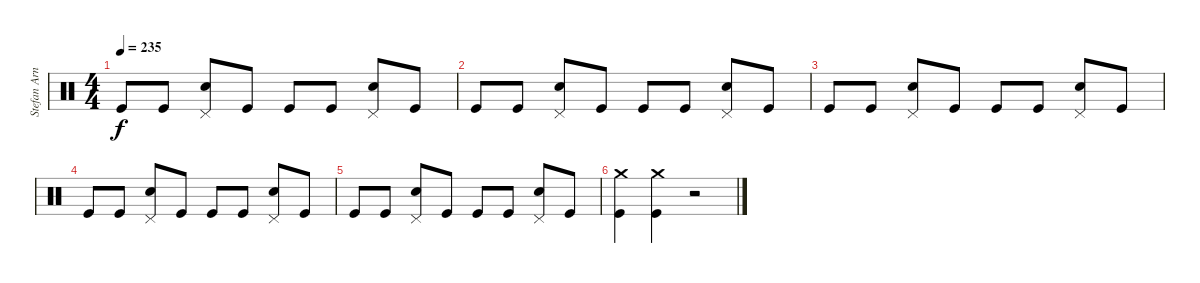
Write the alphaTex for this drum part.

\track ("Stefan Arnold" "Stefan Arn") {instrument percussion}
\staff {score}
\articulation defaults
\ts (4 4)
\tempo 235
\clef neutral
\ks c "Kick (hit)".8{dy f} "Kick (hit)".8
("Electric Snare (hit)" "Pedal Hi-Hat (hit)").8 "Kick (hit)".8 "Kick (hit)".8 "Kick (hit)".8 ("Electric Snare (hit)" "Pedal Hi-Hat (hit)").8 "Kick (hit)".8 |
"Kick (hit)".8 "Kick (hit)".8 ("Electric Snare (hit)" "Pedal Hi-Hat (hit)").8 "Kick (hit)".8 "Kick (hit)".8 "Kick (hit)".8 ("Electric Snare (hit)" "Pedal Hi-Hat (hit)").8 "Kick (hit)".8 |
"Kick (hit)".8 "Kick (hit)".8 ("Electric Snare (hit)" "Pedal Hi-Hat (hit)").8 "Kick (hit)".8 "Kick (hit)".8 "Kick (hit)".8 ("Electric Snare (hit)" "Pedal Hi-Hat (hit)").8 "Kick (hit)".8 |
"Kick (hit)".8 "Kick (hit)".8 ("Electric Snare (hit)" "Pedal Hi-Hat (hit)").8 "Kick (hit)".8 "Kick (hit)".8 "Kick (hit)".8 ("Electric Snare (hit)" "Pedal Hi-Hat (hit)").8 "Kick (hit)".8 |
"Kick (hit)".8 "Kick (hit)".8 ("Electric Snare (hit)" "Pedal Hi-Hat (hit)").8 "Kick (hit)".8 "Kick (hit)".8 "Kick (hit)".8 ("Electric Snare (hit)" "Pedal Hi-Hat (hit)").8 "Kick (hit)".8 |
("Kick (hit)" "Crash medium (hit)").4 ("Kick (hit)" "Crash medium (hit)").4 r.2
